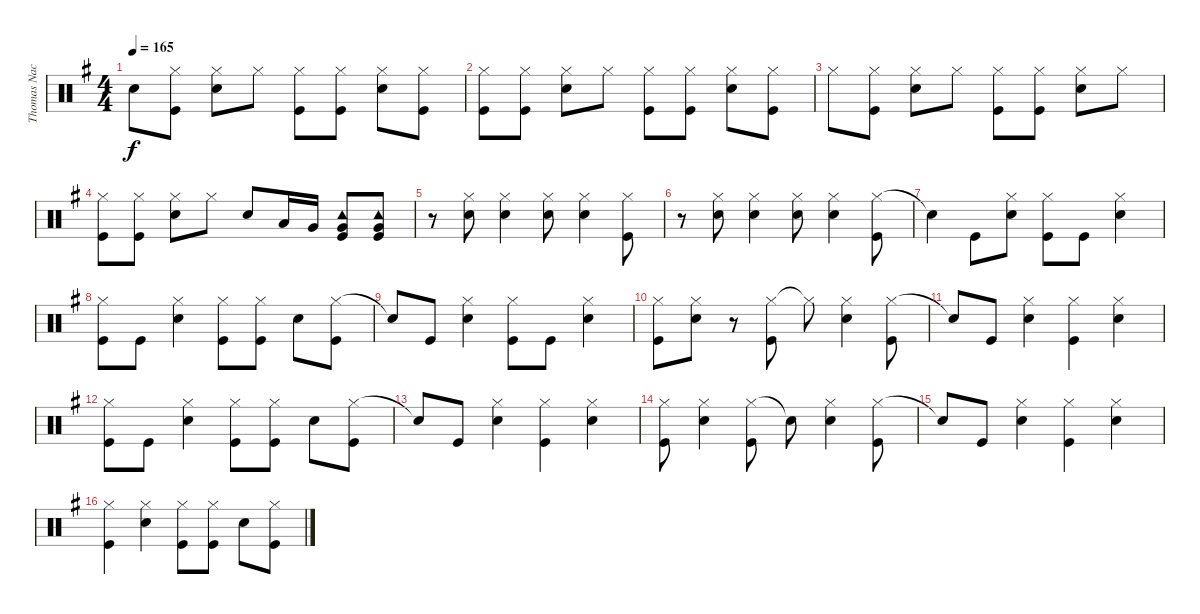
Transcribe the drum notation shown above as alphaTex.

\track ("Thomas Nack" "Thomas Nac") {instrument percussion}
\staff {score}
\articulation defaults
\ts (4 4)
\tempo 165
\clef neutral
\ks g "Snare (hit)"{t}.8{dy f}
("Hi-Hat (closed)" "Kick (hit)").8 ("Hi-Hat (closed)" "Snare (hit) 2").8 "Hi-Hat (closed)".8 ("Hi-Hat (closed)" "Kick (hit)").8 ("Hi-Hat (closed)" "Kick (hit)").8 ("Hi-Hat (closed)" "Snare (hit) 2").8 ("Hi-Hat (closed)" "Kick (hit)").8 |
("Hi-Hat (closed)" "Kick (hit)").8 ("Hi-Hat (closed)" "Kick (hit)").8 ("Hi-Hat (closed)" "Snare (hit) 2").8 "Hi-Hat (closed)".8 ("Hi-Hat (closed)" "Kick (hit)").8 ("Hi-Hat (closed)" "Kick (hit)").8 ("Hi-Hat (closed)" "Snare (hit) 2").8 ("Hi-Hat (closed)" "Kick (hit)").8 |
"Hi-Hat (closed)".8 ("Hi-Hat (closed)" "Kick (hit)").8 ("Hi-Hat (closed)" "Snare (hit) 2").8 "Hi-Hat (closed)".8 ("Hi-Hat (closed)" "Kick (hit)").8 ("Hi-Hat (closed)" "Kick (hit)").8 ("Hi-Hat (closed)" "Snare (hit) 2").8 "Hi-Hat (closed)".8 |
("Hi-Hat (closed)" "Kick (hit)").8 ("Hi-Hat (closed)" "Kick (hit)").8 ("Hi-Hat (closed)" "Snare (hit) 2").8 "Hi-Hat (closed)".8 "Snare (hit) 2".8 "Low Tom (hit)".16 "Very Low Tom (hit)".16 ("Tambourine (hit)" "Kick (hit)" "Very Low Tom (hit)").8 ("Tambourine (hit)" "Kick (hit)" "Very Low Tom (hit)").8 |
r.8 ("Hi-Hat (closed)" "Snare (hit) 2").8 ("Hi-Hat (closed)" "Snare (hit) 2").4 ("Hi-Hat (closed)" "Snare (hit) 2").8 ("Hi-Hat (closed)" "Snare (hit) 2").4 ("Hi-Hat (closed)" "Kick (hit)").8 |
r.8 ("Hi-Hat (closed)" "Snare (hit) 2").8 ("Hi-Hat (closed)" "Snare (hit) 2").4 ("Hi-Hat (closed)" "Snare (hit) 2").8 ("Hi-Hat (closed)" "Snare (hit) 2").4 ("Hi-Hat (closed)" "Kick (hit)").8 |
"Snare (hit)"{t}.4 "Kick (hit)".8 ("Hi-Hat (closed)" "Snare (hit) 2").8 ("Hi-Hat (closed)" "Kick (hit)").8 "Kick (hit)".8 ("Hi-Hat (closed)" "Snare (hit) 2").4 |
("Hi-Hat (closed)" "Kick (hit)").8 "Kick (hit)".8 ("Hi-Hat (closed)" "Snare (hit) 2").4 ("Hi-Hat (closed)" "Kick (hit)").8 ("Hi-Hat (closed)" "Kick (hit)").8 "Snare (hit) 2".8 ("Hi-Hat (closed)" "Kick (hit)").8 |
"Snare (hit)"{t}.8 "Kick (hit)".8 ("Hi-Hat (closed)" "Snare (hit) 2").4 ("Hi-Hat (closed)" "Kick (hit)").8 "Kick (hit)".8 ("Hi-Hat (closed)" "Snare (hit) 2").4 |
("Hi-Hat (closed)" "Kick (hit)").8 ("Hi-Hat (closed)" "Snare (hit) 2").8 r.8 ("Hi-Hat (closed)" "Kick (hit)").8 "Hi-Hat (closed)"{t}.8 ("Hi-Hat (closed)" "Snare (hit) 2").4 ("Hi-Hat (closed)" "Kick (hit)").8 |
"Snare (hit)"{t}.8 "Kick (hit)".8 ("Hi-Hat (closed)" "Snare (hit) 2").4 ("Hi-Hat (closed)" "Kick (hit)").4 ("Hi-Hat (closed)" "Snare (hit) 2").4 |
("Hi-Hat (closed)" "Kick (hit)").8 "Kick (hit)".8 ("Hi-Hat (closed)" "Snare (hit) 2").4 ("Hi-Hat (closed)" "Kick (hit)").8 ("Hi-Hat (closed)" "Kick (hit)").8 "Snare (hit) 2".8 ("Hi-Hat (closed)" "Kick (hit)").8 |
"Snare (hit)"{t}.8 "Kick (hit)".8 ("Hi-Hat (closed)" "Snare (hit) 2").4 ("Hi-Hat (closed)" "Kick (hit)").4 ("Hi-Hat (closed)" "Snare (hit) 2").4 |
("Hi-Hat (closed)" "Kick (hit)").8 ("Hi-Hat (closed)" "Snare (hit) 2").4 ("Hi-Hat (closed)" "Kick (hit)").8 "Snare (hit)"{t}.8 ("Hi-Hat (closed)" "Snare (hit) 2").4 ("Hi-Hat (closed)" "Kick (hit)").8 |
"Snare (hit)"{t}.8 "Kick (hit)".8 ("Hi-Hat (closed)" "Snare (hit) 2").4 ("Hi-Hat (closed)" "Kick (hit)").4 ("Hi-Hat (closed)" "Snare (hit) 2").4 |
("Hi-Hat (closed)" "Kick (hit)").4 ("Hi-Hat (closed)" "Snare (hit) 2").4 ("Hi-Hat (closed)" "Kick (hit)").8 ("Hi-Hat (closed)" "Kick (hit)").8 "Snare (hit) 2".8 ("Hi-Hat (closed)" "Kick (hit)").8
